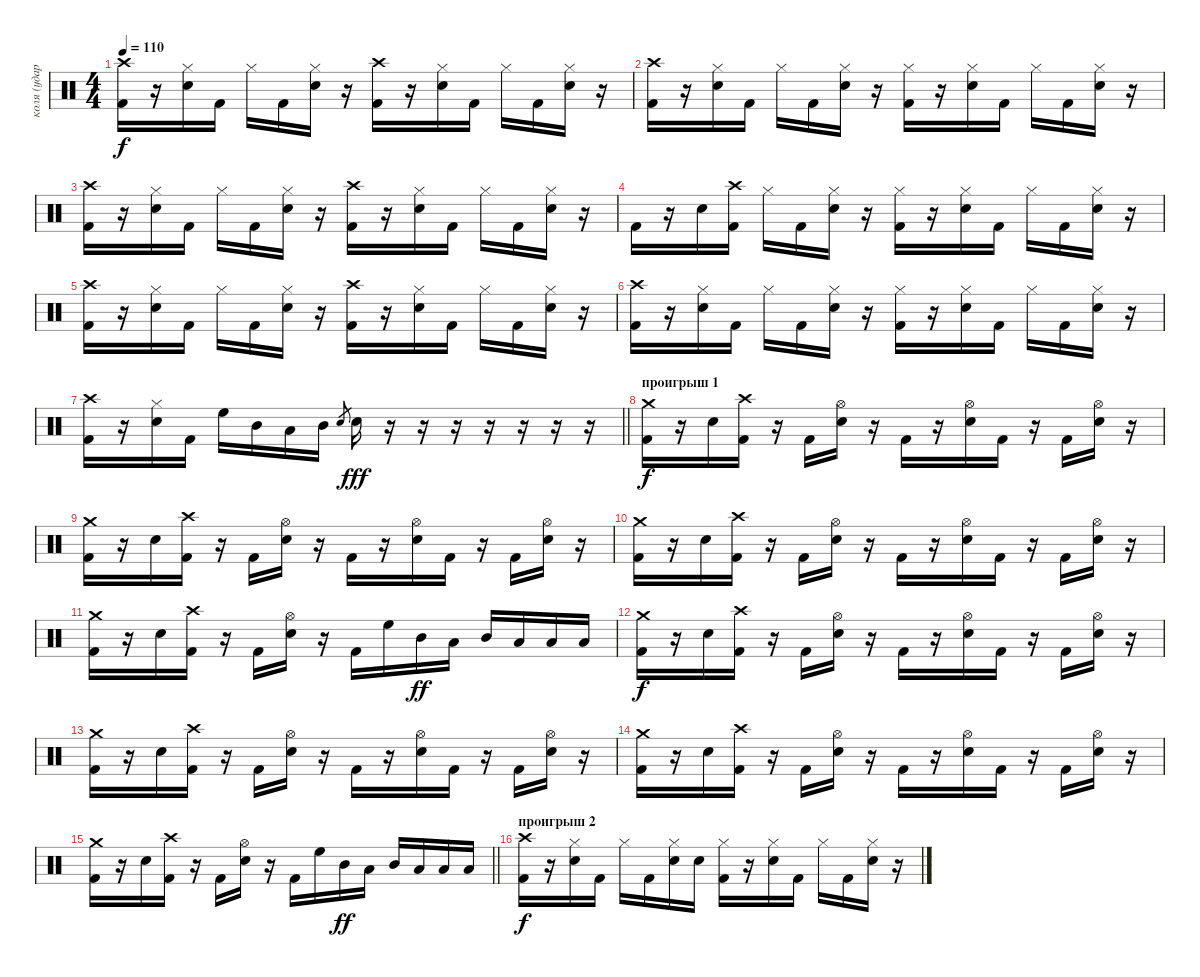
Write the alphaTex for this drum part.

\track ("коля (ударные)" "коля (удар") {instrument percussion}
\staff {score}
\articulation defaults
\ts (4 4)
\tempo 110
\clef neutral
\ks c
("Kick (hit) 2" "Crash high (hit)").16{dy f} r.16 ("Snare (hit) 2" "Hi-Hat (closed)").16 "Kick (hit) 2".16 "Hi-Hat (closed)".16 "Kick (hit) 2".16 ("Snare (hit) 2" "Hi-Hat (closed)").16 r.16 ("Kick (hit) 2" "Crash high (hit)").16 r.16 ("Snare (hit) 2" "Hi-Hat (closed)").16 "Kick (hit) 2".16 "Hi-Hat (closed)".16 "Kick (hit) 2".16 ("Snare (hit) 2" "Hi-Hat (closed)").16 r.16 |
("Kick (hit) 2" "Crash high (hit)").16 r.16 ("Snare (hit) 2" "Hi-Hat (closed)").16 "Kick (hit) 2".16 "Hi-Hat (closed)".16 "Kick (hit) 2".16 ("Snare (hit) 2" "Hi-Hat (closed)").16 r.16 ("Kick (hit) 2" "Hi-Hat (closed)").16 r.16 ("Snare (hit) 2" "Hi-Hat (closed)").16 "Kick (hit) 2".16 "Hi-Hat (closed)".16 "Kick (hit) 2".16 ("Snare (hit) 2" "Hi-Hat (closed)").16 r.16 |
("Kick (hit) 2" "Crash high (hit)").16 r.16 ("Snare (hit) 2" "Hi-Hat (closed)").16 "Kick (hit) 2".16 "Hi-Hat (closed)".16 "Kick (hit) 2".16 ("Snare (hit) 2" "Hi-Hat (closed)").16 r.16 ("Kick (hit) 2" "Crash high (hit)").16 r.16 ("Snare (hit) 2" "Hi-Hat (closed)").16 "Kick (hit) 2".16 "Hi-Hat (closed)".16 "Kick (hit) 2".16 ("Snare (hit) 2" "Hi-Hat (closed)").16 r.16 |
"Kick (hit) 2".16 r.16 "Snare (hit) 2".16 ("Kick (hit) 2" "Crash high (hit)").16 "Hi-Hat (closed)".16 "Kick (hit) 2".16 ("Snare (hit) 2" "Hi-Hat (closed)").16 r.16 ("Kick (hit) 2" "Hi-Hat (closed)").16 r.16 ("Snare (hit) 2" "Hi-Hat (closed)").16 "Kick (hit) 2".16 "Hi-Hat (closed)".16 "Kick (hit) 2".16 ("Snare (hit) 2" "Hi-Hat (closed)").16 r.16 |
("Kick (hit) 2" "Crash high (hit)").16 r.16 ("Snare (hit) 2" "Hi-Hat (closed)").16 "Kick (hit) 2".16 "Hi-Hat (closed)".16 "Kick (hit) 2".16 ("Snare (hit) 2" "Hi-Hat (closed)").16 r.16 ("Kick (hit) 2" "Crash high (hit)").16 r.16 ("Snare (hit) 2" "Hi-Hat (closed)").16 "Kick (hit) 2".16 "Hi-Hat (closed)".16 "Kick (hit) 2".16 ("Snare (hit) 2" "Hi-Hat (closed)").16 r.16 |
("Kick (hit) 2" "Crash high (hit)").16 r.16 ("Snare (hit) 2" "Hi-Hat (closed)").16 "Kick (hit) 2".16 "Hi-Hat (closed)".16 "Kick (hit) 2".16 ("Snare (hit) 2" "Hi-Hat (closed)").16 r.16 ("Kick (hit) 2" "Hi-Hat (closed)").16 r.16 ("Snare (hit) 2" "Hi-Hat (closed)").16 "Kick (hit) 2".16 "Hi-Hat (closed)".16 "Kick (hit) 2".16 ("Snare (hit) 2" "Hi-Hat (closed)").16 r.16 |
\barLineRight lightlight
("Kick (hit) 2" "Crash high (hit)").16 r.16 ("Snare (hit) 2" "Hi-Hat (closed)").16 "Kick (hit) 2".16 "High Floor Tom (hit)".16 "Mid Tom (hit)".16 "Low Tom (hit)".16 "Mid Tom (hit)".16 "Snare (hit) 2".8{gr} "Snare (hit) 2".16{dy fff} r.16 r.16 r.16 r.16 r.16 r.16 r.16 |
\section ("" "проигрыш 1")
("Kick (hit) 2" "Crash medium (hit)").16{dy f} r.16 "Snare (hit) 2".16 ("Kick (hit) 2" "Crash high (hit)").16 r.16 "Kick (hit) 2".16 ("Snare (hit) 2" "Hi-Hat (open)").16 r.16 "Kick (hit) 2".16 r.16 ("Snare (hit) 2" "Hi-Hat (open)").16 "Kick (hit) 2".16 r.16 "Kick (hit) 2".16 ("Snare (hit) 2" "Hi-Hat (open)").16 r.16 |
("Kick (hit) 2" "Crash medium (hit)").16 r.16 "Snare (hit) 2".16 ("Kick (hit) 2" "Crash high (hit)").16 r.16 "Kick (hit) 2".16 ("Snare (hit) 2" "Hi-Hat (open)").16 r.16 "Kick (hit) 2".16 r.16 ("Snare (hit) 2" "Hi-Hat (open)").16 "Kick (hit) 2".16 r.16 "Kick (hit) 2".16 ("Snare (hit) 2" "Hi-Hat (open)").16 r.16 |
("Kick (hit) 2" "Crash medium (hit)").16 r.16 "Snare (hit) 2".16 ("Kick (hit) 2" "Crash high (hit)").16 r.16 "Kick (hit) 2".16 ("Snare (hit) 2" "Hi-Hat (open)").16 r.16 "Kick (hit) 2".16 r.16 ("Snare (hit) 2" "Hi-Hat (open)").16 "Kick (hit) 2".16 r.16 "Kick (hit) 2".16 ("Snare (hit) 2" "Hi-Hat (open)").16 r.16 |
("Kick (hit) 2" "Crash medium (hit)").16 r.16 "Snare (hit) 2".16 ("Kick (hit) 2" "Crash high (hit)").16 r.16 "Kick (hit) 2".16 ("Snare (hit) 2" "Hi-Hat (open)").16 r.16 "Kick (hit) 2".16 "High Floor Tom (hit)".16 "Mid Tom (hit)".16{dy ff} "Low Tom (hit)".16 "Mid Tom (hit)".16 "Low Floor Tom (hit)".16 "Low Tom (hit)".16 "Low Floor Tom (hit)".16 |
("Kick (hit) 2" "Crash medium (hit)").16{dy f} r.16 "Snare (hit) 2".16 ("Kick (hit) 2" "Crash high (hit)").16 r.16 "Kick (hit) 2".16 ("Snare (hit) 2" "Hi-Hat (open)").16 r.16 "Kick (hit) 2".16 r.16 ("Snare (hit) 2" "Hi-Hat (open)").16 "Kick (hit) 2".16 r.16 "Kick (hit) 2".16 ("Snare (hit) 2" "Hi-Hat (open)").16 r.16 |
("Kick (hit) 2" "Crash medium (hit)").16 r.16 "Snare (hit) 2".16 ("Kick (hit) 2" "Crash high (hit)").16 r.16 "Kick (hit) 2".16 ("Snare (hit) 2" "Hi-Hat (open)").16 r.16 "Kick (hit) 2".16 r.16 ("Snare (hit) 2" "Hi-Hat (open)").16 "Kick (hit) 2".16 r.16 "Kick (hit) 2".16 ("Snare (hit) 2" "Hi-Hat (open)").16 r.16 |
("Kick (hit) 2" "Crash medium (hit)").16 r.16 "Snare (hit) 2".16 ("Kick (hit) 2" "Crash high (hit)").16 r.16 "Kick (hit) 2".16 ("Snare (hit) 2" "Hi-Hat (open)").16 r.16 "Kick (hit) 2".16 r.16 ("Snare (hit) 2" "Hi-Hat (open)").16 "Kick (hit) 2".16 r.16 "Kick (hit) 2".16 ("Snare (hit) 2" "Hi-Hat (open)").16 r.16 |
\barLineRight lightlight
("Kick (hit) 2" "Crash medium (hit)").16 r.16 "Snare (hit) 2".16 ("Kick (hit) 2" "Crash high (hit)").16 r.16 "Kick (hit) 2".16 ("Snare (hit) 2" "Hi-Hat (open)").16 r.16 "Kick (hit) 2".16 "High Floor Tom (hit)".16 "Mid Tom (hit)".16{dy ff} "Low Tom (hit)".16 "Mid Tom (hit)".16 "Low Floor Tom (hit)".16 "Low Tom (hit)".16 "Low Floor Tom (hit)".16 |
\section ("" "проигрыш 2")
("Kick (hit) 2" "Crash high (hit)").16{dy f} r.16 ("Snare (hit) 2" "Hi-Hat (closed)").16 "Kick (hit) 2".16 "Hi-Hat (closed)".16 "Kick (hit) 2".16 ("Snare (hit) 2" "Hi-Hat (closed)").16 "Snare (hit) 2".16 ("Kick (hit) 2" "Hi-Hat (closed)").16 r.16 ("Snare (hit) 2" "Hi-Hat (closed)").16 "Kick (hit) 2".16 "Hi-Hat (closed)".16 "Kick (hit) 2".16 ("Snare (hit) 2" "Hi-Hat (closed)").16 r.16
